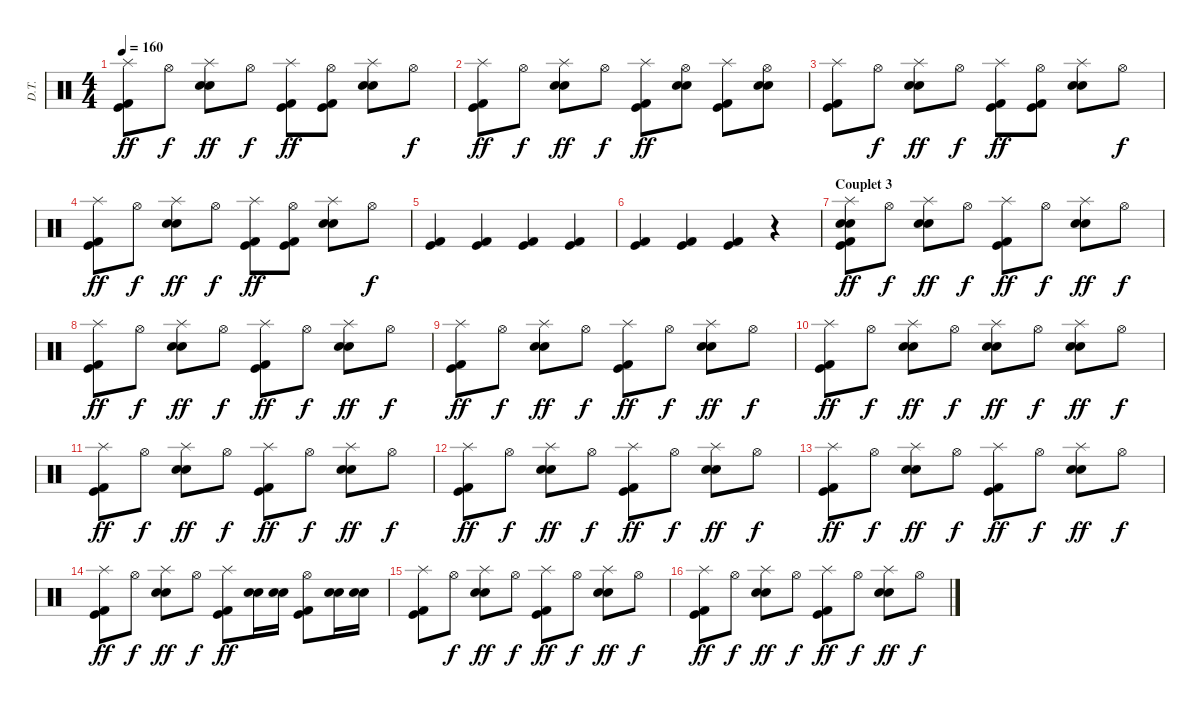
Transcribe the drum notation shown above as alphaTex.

\track ("D.T." "D.T.") {instrument percussion}
\staff {score}
\articulation defaults
\ts (4 4)
\tempo 160
\clef neutral
\ks c
("Splash (hit)" "Kick (hit)" "Kick (hit) 2").8{dy ff} "Hi-Hat (open)".8{dy f} ("Splash (hit)" "Snare (hit) 2" "Electric Snare (hit)").8{dy ff} "Hi-Hat (open)".8{dy f} ("Splash (hit)" "Kick (hit)" "Kick (hit) 2").8{dy ff} ("Hi-Hat (open)" "Kick (hit)" "Kick (hit) 2").8 ("Splash (hit)" "Snare (hit) 2" "Electric Snare (hit)").8 "Hi-Hat (open)".8{dy f} |
("Splash (hit)" "Kick (hit)" "Kick (hit) 2").8{dy ff} "Hi-Hat (open)".8{dy f} ("Splash (hit)" "Snare (hit) 2" "Electric Snare (hit)").8{dy ff} "Hi-Hat (open)".8{dy f} ("Splash (hit)" "Kick (hit)" "Kick (hit) 2").8{dy ff} ("Hi-Hat (open)" "Snare (hit) 2" "Electric Snare (hit)").8 ("Splash (hit)" "Kick (hit)" "Kick (hit) 2").8 ("Hi-Hat (open)" "Snare (hit) 2" "Electric Snare (hit)").8 |
("Splash (hit)" "Kick (hit)" "Kick (hit) 2").8 "Hi-Hat (open)".8{dy f} ("Splash (hit)" "Snare (hit) 2" "Electric Snare (hit)").8{dy ff} "Hi-Hat (open)".8{dy f} ("Splash (hit)" "Kick (hit)" "Kick (hit) 2").8{dy ff} ("Hi-Hat (open)" "Kick (hit)" "Kick (hit) 2").8 ("Splash (hit)" "Snare (hit) 2" "Electric Snare (hit)").8 "Hi-Hat (open)".8{dy f} |
("Splash (hit)" "Kick (hit)" "Kick (hit) 2").8{dy ff} "Hi-Hat (open)".8{dy f} ("Splash (hit)" "Snare (hit) 2" "Electric Snare (hit)").8{dy ff} "Hi-Hat (open)".8{dy f} ("Splash (hit)" "Kick (hit)" "Kick (hit) 2").8{dy ff} ("Hi-Hat (open)" "Kick (hit)" "Kick (hit) 2").8 ("Splash (hit)" "Snare (hit) 2" "Electric Snare (hit)").8 "Hi-Hat (open)".8{dy f} |
("Kick (hit)" "Kick (hit) 2").4 ("Kick (hit)" "Kick (hit) 2").4 ("Kick (hit)" "Kick (hit) 2").4 ("Kick (hit)" "Kick (hit) 2").4 |
("Kick (hit)" "Kick (hit) 2").4 ("Kick (hit)" "Kick (hit) 2").4 ("Kick (hit)" "Kick (hit) 2").4 r.4 |
\section ("" "Couplet 3")
("Splash (hit)" "Snare (hit) 2" "Electric Snare (hit)" "Kick (hit)" "Kick (hit) 2").8{dy ff} "Hi-Hat (open)".8{dy f} ("Splash (hit)" "Snare (hit) 2" "Electric Snare (hit)").8{dy ff} "Hi-Hat (open)".8{dy f} ("Splash (hit)" "Kick (hit)" "Kick (hit) 2").8{dy ff} "Hi-Hat (open)".8{dy f} ("Splash (hit)" "Snare (hit) 2" "Electric Snare (hit)").8{dy ff} "Hi-Hat (open)".8{dy f} |
("Splash (hit)" "Kick (hit)" "Kick (hit) 2").8{dy ff} "Hi-Hat (open)".8{dy f} ("Splash (hit)" "Snare (hit) 2" "Electric Snare (hit)").8{dy ff} "Hi-Hat (open)".8{dy f} ("Splash (hit)" "Kick (hit)" "Kick (hit) 2").8{dy ff} "Hi-Hat (open)".8{dy f} ("Splash (hit)" "Snare (hit) 2" "Electric Snare (hit)").8{dy ff} "Hi-Hat (open)".8{dy f} |
("Splash (hit)" "Kick (hit)" "Kick (hit) 2").8{dy ff} "Hi-Hat (open)".8{dy f} ("Splash (hit)" "Snare (hit) 2" "Electric Snare (hit)").8{dy ff} "Hi-Hat (open)".8{dy f} ("Splash (hit)" "Kick (hit)" "Kick (hit) 2").8{dy ff} "Hi-Hat (open)".8{dy f} ("Splash (hit)" "Snare (hit) 2" "Electric Snare (hit)").8{dy ff} "Hi-Hat (open)".8{dy f} |
("Splash (hit)" "Kick (hit)" "Kick (hit) 2").8{dy ff} "Hi-Hat (open)".8{dy f} ("Splash (hit)" "Snare (hit) 2" "Electric Snare (hit)").8{dy ff} "Hi-Hat (open)".8{dy f} ("Splash (hit)" "Snare (hit) 2" "Electric Snare (hit)").8{dy ff} "Hi-Hat (open)".8{dy f} ("Splash (hit)" "Snare (hit) 2" "Electric Snare (hit)").8{dy ff} "Hi-Hat (open)".8{dy f} |
("Splash (hit)" "Kick (hit)" "Kick (hit) 2").8{dy ff} "Hi-Hat (open)".8{dy f} ("Splash (hit)" "Snare (hit) 2" "Electric Snare (hit)").8{dy ff} "Hi-Hat (open)".8{dy f} ("Splash (hit)" "Kick (hit)" "Kick (hit) 2").8{dy ff} "Hi-Hat (open)".8{dy f} ("Splash (hit)" "Snare (hit) 2" "Electric Snare (hit)").8{dy ff} "Hi-Hat (open)".8{dy f} |
("Splash (hit)" "Kick (hit)" "Kick (hit) 2").8{dy ff} "Hi-Hat (open)".8{dy f} ("Splash (hit)" "Snare (hit) 2" "Electric Snare (hit)").8{dy ff} "Hi-Hat (open)".8{dy f} ("Splash (hit)" "Kick (hit)" "Kick (hit) 2").8{dy ff} "Hi-Hat (open)".8{dy f} ("Splash (hit)" "Snare (hit) 2" "Electric Snare (hit)").8{dy ff} "Hi-Hat (open)".8{dy f} |
("Splash (hit)" "Kick (hit)" "Kick (hit) 2").8{dy ff} "Hi-Hat (open)".8{dy f} ("Splash (hit)" "Snare (hit) 2" "Electric Snare (hit)").8{dy ff} "Hi-Hat (open)".8{dy f} ("Splash (hit)" "Kick (hit)" "Kick (hit) 2").8{dy ff} "Hi-Hat (open)".8{dy f} ("Splash (hit)" "Snare (hit) 2" "Electric Snare (hit)").8{dy ff} "Hi-Hat (open)".8{dy f} |
("Splash (hit)" "Kick (hit)" "Kick (hit) 2").8{dy ff} "Hi-Hat (open)".8{dy f} ("Splash (hit)" "Snare (hit) 2" "Electric Snare (hit)").8{dy ff} "Hi-Hat (open)".8{dy f} ("Splash (hit)" "Kick (hit)" "Kick (hit) 2").8{dy ff} ("Snare (hit) 2" "Electric Snare (hit)").16 ("Snare (hit) 2" "Electric Snare (hit)").16 ("Hi-Hat (open)" "Kick (hit)" "Kick (hit) 2").8 ("Snare (hit) 2" "Electric Snare (hit)").16 ("Snare (hit) 2" "Electric Snare (hit)").16 |
("Splash (hit)" "Kick (hit)" "Kick (hit) 2").8 "Hi-Hat (open)".8{dy f} ("Splash (hit)" "Snare (hit) 2" "Electric Snare (hit)").8{dy ff} "Hi-Hat (open)".8{dy f} ("Splash (hit)" "Kick (hit)" "Kick (hit) 2").8{dy ff} "Hi-Hat (open)".8{dy f} ("Splash (hit)" "Snare (hit) 2" "Electric Snare (hit)").8{dy ff} "Hi-Hat (open)".8{dy f} |
("Splash (hit)" "Kick (hit)" "Kick (hit) 2").8{dy ff} "Hi-Hat (open)".8{dy f} ("Splash (hit)" "Snare (hit) 2" "Electric Snare (hit)").8{dy ff} "Hi-Hat (open)".8{dy f} ("Splash (hit)" "Kick (hit)" "Kick (hit) 2").8{dy ff} "Hi-Hat (open)".8{dy f} ("Splash (hit)" "Snare (hit) 2" "Electric Snare (hit)").8{dy ff} "Hi-Hat (open)".8{dy f}
